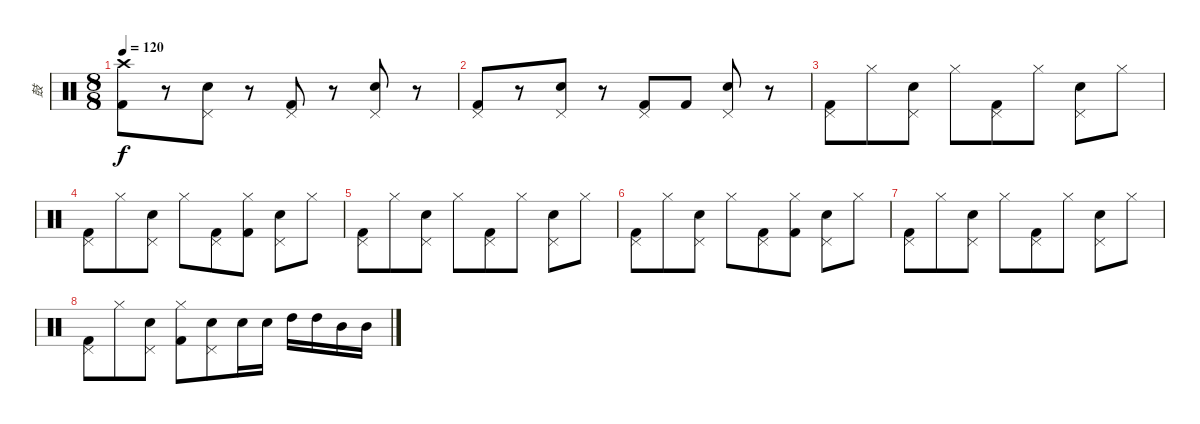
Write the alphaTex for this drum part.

\track ("鼓" "鼓") {instrument percussion}
\staff {score}
\articulation defaults
\ts (8 8)
\tempo 120
\clef neutral
\ks c
("Crash high (hit)" "Kick (hit) 2").8{dy f} r.8 ("Pedal Hi-Hat (hit)" "Electric Snare (hit)").8 r.8 ("Pedal Hi-Hat (hit)" "Kick (hit) 2").8 r.8 ("Pedal Hi-Hat (hit)" "Electric Snare (hit)").8 r.8 |
("Pedal Hi-Hat (hit)" "Kick (hit) 2").8 r.8 ("Pedal Hi-Hat (hit)" "Electric Snare (hit)").8 r.8 ("Pedal Hi-Hat (hit)" "Kick (hit) 2").8 "Kick (hit) 2".8 ("Pedal Hi-Hat (hit)" "Electric Snare (hit)").8 r.8 |
("Pedal Hi-Hat (hit)" "Kick (hit) 2").8 "Hi-Hat (closed)".8 ("Pedal Hi-Hat (hit)" "Electric Snare (hit)").8 "Hi-Hat (closed)".8 ("Pedal Hi-Hat (hit)" "Kick (hit) 2").8 "Hi-Hat (closed)".8 ("Pedal Hi-Hat (hit)" "Electric Snare (hit)").8 "Hi-Hat (closed)".8 |
("Pedal Hi-Hat (hit)" "Kick (hit) 2").8 "Hi-Hat (closed)".8 ("Pedal Hi-Hat (hit)" "Electric Snare (hit)").8 "Hi-Hat (closed)".8 ("Pedal Hi-Hat (hit)" "Kick (hit) 2").8 ("Hi-Hat (closed)" "Kick (hit) 2").8 ("Pedal Hi-Hat (hit)" "Electric Snare (hit)").8 "Hi-Hat (closed)".8 |
("Pedal Hi-Hat (hit)" "Kick (hit) 2").8 "Hi-Hat (closed)".8 ("Pedal Hi-Hat (hit)" "Electric Snare (hit)").8 "Hi-Hat (closed)".8 ("Pedal Hi-Hat (hit)" "Kick (hit) 2").8 "Hi-Hat (closed)".8 ("Pedal Hi-Hat (hit)" "Electric Snare (hit)").8 "Hi-Hat (closed)".8 |
("Pedal Hi-Hat (hit)" "Kick (hit) 2").8 "Hi-Hat (closed)".8 ("Pedal Hi-Hat (hit)" "Electric Snare (hit)").8 "Hi-Hat (closed)".8 ("Pedal Hi-Hat (hit)" "Kick (hit) 2").8 ("Hi-Hat (closed)" "Kick (hit) 2").8 ("Pedal Hi-Hat (hit)" "Electric Snare (hit)").8 "Hi-Hat (closed)".8 |
("Pedal Hi-Hat (hit)" "Kick (hit) 2").8 "Hi-Hat (closed)".8 ("Pedal Hi-Hat (hit)" "Electric Snare (hit)").8 "Hi-Hat (closed)".8 ("Pedal Hi-Hat (hit)" "Kick (hit) 2").8 "Hi-Hat (closed)".8 ("Pedal Hi-Hat (hit)" "Electric Snare (hit)").8 "Hi-Hat (closed)".8 |
("Pedal Hi-Hat (hit)" "Kick (hit) 2").8 "Hi-Hat (closed)".8 ("Pedal Hi-Hat (hit)" "Electric Snare (hit)").8 ("Hi-Hat (closed)" "Kick (hit) 2").8 ("Pedal Hi-Hat (hit)" "Electric Snare (hit)").8 "Electric Snare (hit)".16 "Electric Snare (hit)".16 "High Tom (hit)".16 "High Tom (hit)".16 "Mid Tom (hit)".16 "Mid Tom (hit)".16
